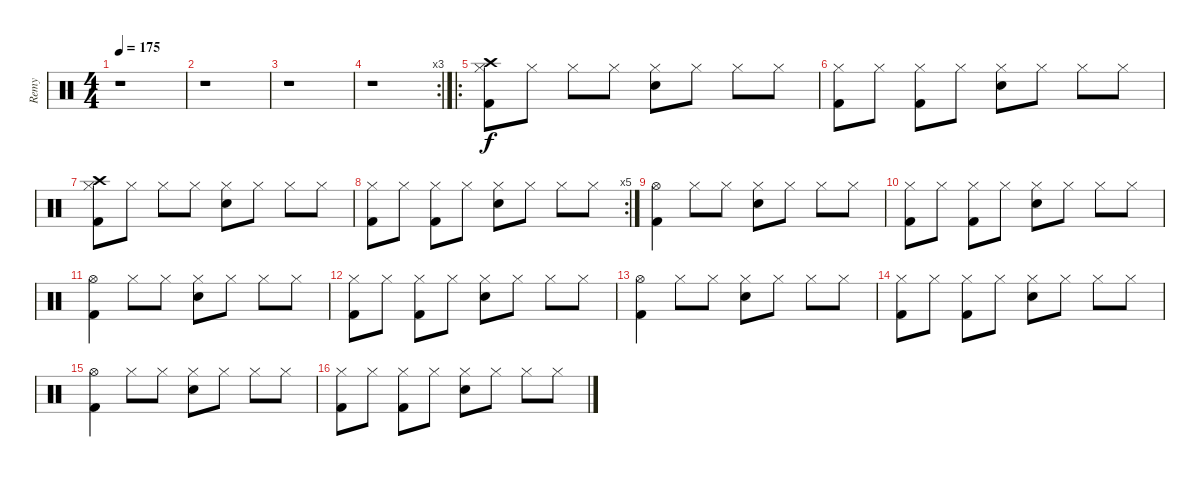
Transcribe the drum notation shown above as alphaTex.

\track ("Remy" "Remy") {instrument percussion}
\staff {score}
\articulation defaults
\ts (4 4)
\tempo 175
\clef neutral
\ks c
r.1{dy f} |
r.1 |
r.1 |
\rc 3
r.1 |
\ro
("Hi-Hat (closed)" "Crash high (hit)" "Kick (hit) 2").8 "Hi-Hat (closed)".8 "Hi-Hat (closed)".8 "Hi-Hat (closed)".8 ("Snare (hit) 2" "Hi-Hat (closed)").8 "Hi-Hat (closed)".8 "Hi-Hat (closed)".8 "Hi-Hat (closed)".8 |
("Hi-Hat (closed)" "Kick (hit) 2").8 "Hi-Hat (closed)".8 ("Hi-Hat (closed)" "Kick (hit) 2").8 "Hi-Hat (closed)".8 ("Snare (hit) 2" "Hi-Hat (closed)").8 "Hi-Hat (closed)".8 "Hi-Hat (closed)".8 "Hi-Hat (closed)".8 |
("Hi-Hat (closed)" "Crash high (hit)" "Kick (hit) 2").8 "Hi-Hat (closed)".8 "Hi-Hat (closed)".8 "Hi-Hat (closed)".8 ("Snare (hit) 2" "Hi-Hat (closed)").8 "Hi-Hat (closed)".8 "Hi-Hat (closed)".8 "Hi-Hat (closed)".8 |
\rc 5
("Hi-Hat (closed)" "Kick (hit) 2").8 "Hi-Hat (closed)".8 ("Hi-Hat (closed)" "Kick (hit) 2").8 "Hi-Hat (closed)".8 ("Snare (hit) 2" "Hi-Hat (closed)").8 "Hi-Hat (closed)".8 "Hi-Hat (closed)".8 "Hi-Hat (closed)".8 |
("Hi-Hat (open)" "Kick (hit) 2").4 "Hi-Hat (closed)".8 "Hi-Hat (closed)".8 ("Snare (hit) 2" "Hi-Hat (closed)").8 "Hi-Hat (closed)".8 "Hi-Hat (closed)".8 "Hi-Hat (closed)".8 |
("Hi-Hat (closed)" "Kick (hit) 2").8 "Hi-Hat (closed)".8 ("Hi-Hat (closed)" "Kick (hit) 2").8 "Hi-Hat (closed)".8 ("Snare (hit) 2" "Hi-Hat (closed)").8 "Hi-Hat (closed)".8 "Hi-Hat (closed)".8 "Hi-Hat (closed)".8 |
("Hi-Hat (open)" "Kick (hit) 2").4 "Hi-Hat (closed)".8 "Hi-Hat (closed)".8 ("Snare (hit) 2" "Hi-Hat (closed)").8 "Hi-Hat (closed)".8 "Hi-Hat (closed)".8 "Hi-Hat (closed)".8 |
("Hi-Hat (closed)" "Kick (hit) 2").8 "Hi-Hat (closed)".8 ("Hi-Hat (closed)" "Kick (hit) 2").8 "Hi-Hat (closed)".8 ("Snare (hit) 2" "Hi-Hat (closed)").8 "Hi-Hat (closed)".8 "Hi-Hat (closed)".8 "Hi-Hat (closed)".8 |
("Hi-Hat (open)" "Kick (hit) 2").4 "Hi-Hat (closed)".8 "Hi-Hat (closed)".8 ("Snare (hit) 2" "Hi-Hat (closed)").8 "Hi-Hat (closed)".8 "Hi-Hat (closed)".8 "Hi-Hat (closed)".8 |
("Hi-Hat (closed)" "Kick (hit) 2").8 "Hi-Hat (closed)".8 ("Hi-Hat (closed)" "Kick (hit) 2").8 "Hi-Hat (closed)".8 ("Snare (hit) 2" "Hi-Hat (closed)").8 "Hi-Hat (closed)".8 "Hi-Hat (closed)".8 "Hi-Hat (closed)".8 |
("Hi-Hat (open)" "Kick (hit) 2").4 "Hi-Hat (closed)".8 "Hi-Hat (closed)".8 ("Snare (hit) 2" "Hi-Hat (closed)").8 "Hi-Hat (closed)".8 "Hi-Hat (closed)".8 "Hi-Hat (closed)".8 |
("Hi-Hat (closed)" "Kick (hit) 2").8 "Hi-Hat (closed)".8 ("Hi-Hat (closed)" "Kick (hit) 2").8 "Hi-Hat (closed)".8 ("Snare (hit) 2" "Hi-Hat (closed)").8 "Hi-Hat (closed)".8 "Hi-Hat (closed)".8 "Hi-Hat (closed)".8
